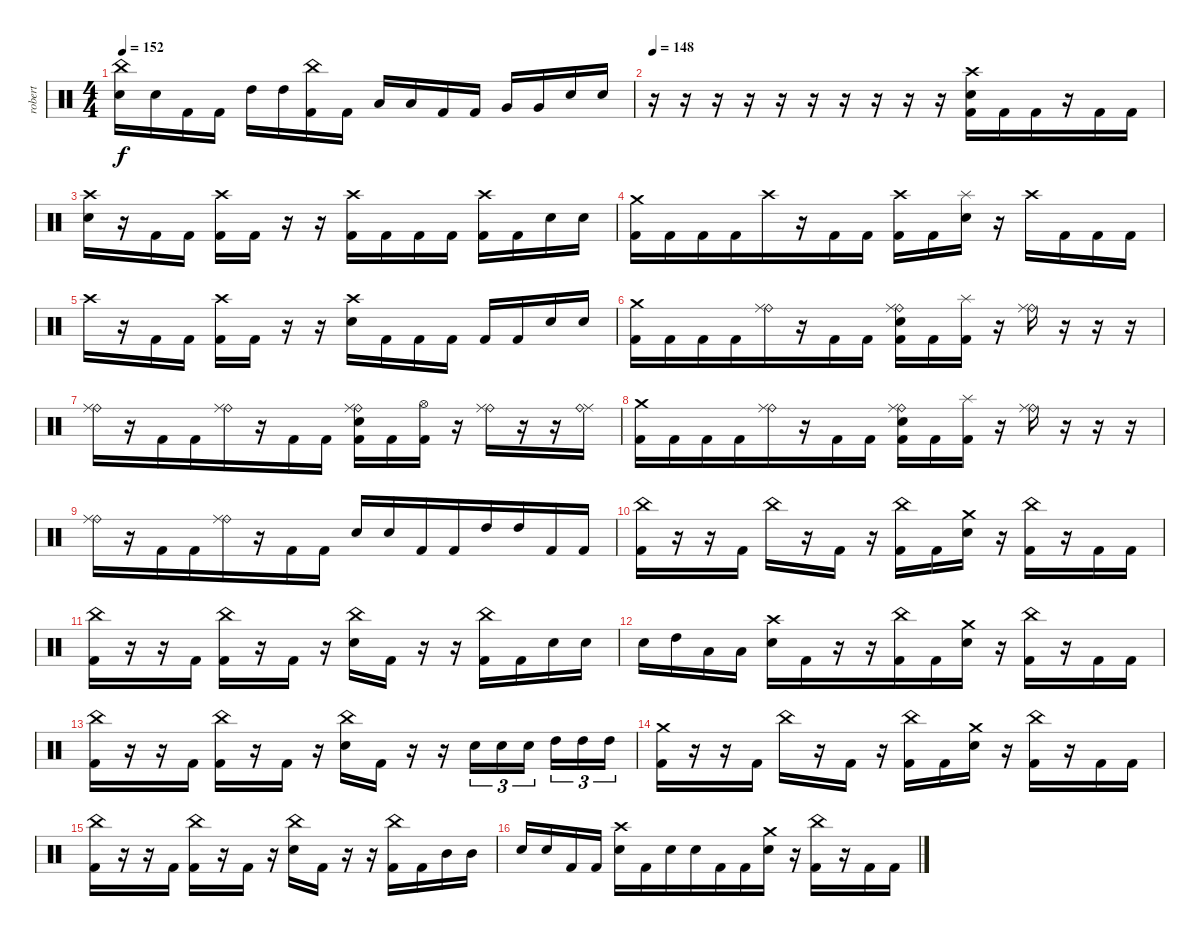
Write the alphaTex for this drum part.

\track ("robert" "robert") {instrument percussion}
\staff {score}
\articulation defaults
\ts (4 4)
\tempo 152
\clef neutral
\ks c
("Electric Snare (hit)" "China (hit)").16{dy f} "Electric Snare (hit)".16 "Kick (hit) 2".16 "Kick (hit) 2".16 "High Tom (hit)".16 "High Tom (hit)".16 ("Kick (hit) 2" "China (hit)").16 "Kick (hit) 2".16 "Low Tom (hit)".16 "Low Tom (hit)".16 "Kick (hit) 2".16 "Kick (hit) 2".16 "Very Low Tom (hit)".16 "Very Low Tom (hit)".16 "Electric Snare (hit)".16 "Electric Snare (hit)".16 |
\tempo 148
r.16{beam merge} r.16 r.16 r.16{beam merge} r.16 r.16 r.16 r.16 r.16 r.16{beam merge} ("Electric Snare (hit)" "Crash high (hit)" "Kick (hit) 2").16 "Kick (hit) 2".16{beam merge} "Kick (hit) 2".16 r.16 "Kick (hit) 2".16 "Kick (hit) 2".16 |
("Crash high (hit)" "Electric Snare (hit)").16 r.16 "Kick (hit) 2".16{beam merge} "Kick (hit) 2".16 ("Crash high (hit)" "Kick (hit) 2").16 "Kick (hit) 2".16 r.16 r.16{beam merge} ("Crash high (hit)" "Kick (hit) 2").16{beam merge} "Kick (hit) 2".16 "Kick (hit) 2".16 "Kick (hit) 2".16 ("Crash high (hit)" "Kick (hit) 2").16 "Kick (hit) 2".16{beam merge} "Electric Snare (hit)".16 "Electric Snare (hit)".16 |
("Crash medium (hit)" "Kick (hit) 2").16{beam merge} "Kick (hit) 2".16 "Kick (hit) 2".16 "Kick (hit) 2".16{beam merge} "Crash high (hit)".16 r.16 "Kick (hit) 2".16 "Kick (hit) 2".16 ("Crash high (hit)" "Kick (hit) 2").16 "Kick (hit) 2".16{beam merge} ("Electric Snare (hit)" "Splash (hit)").16 r.16{beam merge} "Crash high (hit)".16 "Kick (hit) 2".16 "Kick (hit) 2".16 "Kick (hit) 2".16 |
"Crash high (hit)".16 r.16 "Kick (hit) 2".16{beam merge} "Kick (hit) 2".16 ("Crash high (hit)" "Kick (hit) 2").16 "Kick (hit) 2".16 r.16 r.16{beam merge} ("Crash high (hit)" "Electric Snare (hit)").16{beam merge} "Kick (hit) 2".16 "Kick (hit) 2".16 "Kick (hit) 2".16 "Kick (hit) 2".16 "Kick (hit) 2".16{beam merge} "Electric Snare (hit)".16 "Electric Snare (hit)".16 |
("Crash medium (hit)" "Kick (hit) 2").16{beam merge} "Kick (hit) 2".16 "Kick (hit) 2".16 "Kick (hit) 2".16{beam merge} ("Ride (bell)" "Ride (middle)").16 r.16 "Kick (hit) 2".16 "Kick (hit) 2".16 ("Ride (bell)" "Ride (middle)" "Kick (hit) 2" "Electric Snare (hit)").16 "Kick (hit) 2".16{beam merge} ("Kick (hit) 2" "Splash (hit)").16 r.16{beam merge} ("Ride (bell)" "Ride (middle)").16 r.16 r.16 r.16 |
("Ride (bell)" "Ride (middle)").16{beam merge} r.16 "Kick (hit) 2".16 "Kick (hit) 2".16{beam merge} ("Ride (bell)" "Ride (middle)").16 r.16 "Kick (hit) 2".16 "Kick (hit) 2".16 ("Ride (bell)" "Ride (middle)" "Kick (hit) 2" "Electric Snare (hit)").16 "Kick (hit) 2".16{beam merge} ("Kick (hit) 2" "Hi-Hat (open)").16 r.16{beam merge} ("Ride (bell)" "Ride (middle)").16 r.16 r.16 ("Ride (middle)" "Ride (bell)").16 |
("Crash medium (hit)" "Kick (hit) 2").16{beam merge} "Kick (hit) 2".16 "Kick (hit) 2".16 "Kick (hit) 2".16{beam merge} ("Ride (bell)" "Ride (middle)").16 r.16 "Kick (hit) 2".16 "Kick (hit) 2".16 ("Ride (bell)" "Ride (middle)" "Kick (hit) 2" "Electric Snare (hit)").16 "Kick (hit) 2".16{beam merge} ("Kick (hit) 2" "Splash (hit)").16 r.16{beam merge} ("Ride (bell)" "Ride (middle)").16 r.16 r.16 r.16 |
("Ride (bell)" "Ride (middle)").16{beam merge} r.16 "Kick (hit) 2".16 "Kick (hit) 2".16{beam merge} ("Ride (bell)" "Ride (middle)").16 r.16 "Kick (hit) 2".16 "Kick (hit) 2".16 "Electric Snare (hit)".16{beam merge} "Electric Snare (hit)".16 "Kick (hit) 2".16 "Kick (hit) 2".16{beam merge} "High Tom (hit)".16 "High Tom (hit)".16 "Kick (hit) 2".16{beam merge} "Kick (hit) 2".16 |
("China (hit)" "Kick (hit) 2").16 r.16 r.16 "Kick (hit) 2".16 "China (hit)".16 r.16{beam merge} "Kick (hit) 2".16 r.16{beam merge} ("China (hit)" "Kick (hit) 2").16 "Kick (hit) 2".16 ("Electric Snare (hit)" "Crash medium (hit)").16 r.16 ("China (hit)" "Kick (hit) 2").16 r.16 "Kick (hit) 2".16 "Kick (hit) 2".16 |
("China (hit)" "Kick (hit) 2").16 r.16 r.16 "Kick (hit) 2".16 ("China (hit)" "Kick (hit) 2").16 r.16{beam merge} "Kick (hit) 2".16 r.16{beam merge} ("China (hit)" "Electric Snare (hit)").16 "Kick (hit) 2".16 r.16 r.16 ("Kick (hit) 2" "China (hit)").16 "Kick (hit) 2".16 "Electric Snare (hit)".16 "Electric Snare (hit)".16 |
"Electric Snare (hit)".16 "High Tom (hit)".16 "Low Tom (hit)".16 "Low Tom (hit)".16 ("Electric Snare (hit)" "Crash high (hit)").16 "Kick (hit) 2".16{beam merge} r.16 r.16{beam merge} ("China (hit)" "Kick (hit) 2").16 "Kick (hit) 2".16 ("Electric Snare (hit)" "Crash medium (hit)").16 r.16 ("China (hit)" "Kick (hit) 2").16 r.16 "Kick (hit) 2".16 "Kick (hit) 2".16 |
("China (hit)" "Kick (hit) 2").16 r.16 r.16 "Kick (hit) 2".16 ("China (hit)" "Kick (hit) 2").16 r.16{beam merge} "Kick (hit) 2".16 r.16{beam merge} ("China (hit)" "Electric Snare (hit)").16 "Kick (hit) 2".16 r.16 r.16 "Electric Snare (hit)".16{tu (3 2)} "Electric Snare (hit)".16{tu (3 2)} "Electric Snare (hit)".16{tu (3 2) beam splitsecondary} "High Tom (hit)".16{tu (3 2)} "High Tom (hit)".16{tu (3 2)} "High Tom (hit)".16{tu (3 2)} |
("Crash medium (hit)" "Kick (hit) 2").16 r.16 r.16 "Kick (hit) 2".16 "China (hit)".16 r.16{beam merge} "Kick (hit) 2".16 r.16{beam merge} ("China (hit)" "Kick (hit) 2").16 "Kick (hit) 2".16 ("Electric Snare (hit)" "Crash medium (hit)").16 r.16 ("China (hit)" "Kick (hit) 2").16 r.16 "Kick (hit) 2".16 "Kick (hit) 2".16 |
("China (hit)" "Kick (hit) 2").16 r.16 r.16 "Kick (hit) 2".16 ("China (hit)" "Kick (hit) 2").16 r.16{beam merge} "Kick (hit) 2".16 r.16{beam merge} ("China (hit)" "Electric Snare (hit)").16 "Kick (hit) 2".16 r.16 r.16 ("Kick (hit) 2" "China (hit)").16 "Kick (hit) 2".16 "Mid Tom (hit)".16 "Mid Tom (hit)".16 |
"Electric Snare (hit)".16 "Electric Snare (hit)".16 "Kick (hit) 2".16 "Kick (hit) 2".16 ("Electric Snare (hit)" "Crash high (hit)").16 "Kick (hit) 2".16{beam merge} "Electric Snare (hit)".16 "Electric Snare (hit)".16{beam merge} "Kick (hit) 2".16 "Kick (hit) 2".16 ("Electric Snare (hit)" "Crash medium (hit)").16 r.16 ("China (hit)" "Kick (hit) 2").16 r.16 "Kick (hit) 2".16 "Kick (hit) 2".16
